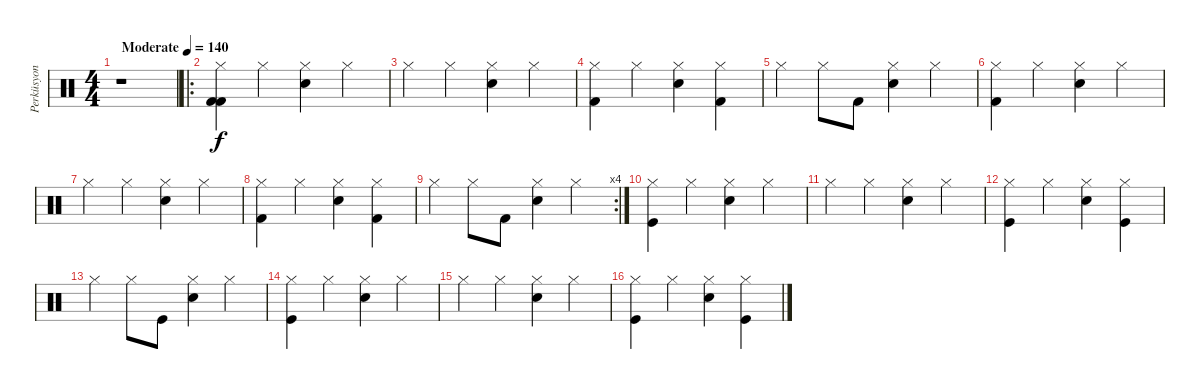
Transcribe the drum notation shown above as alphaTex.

\track ("Perküsyon" "Perküsyon") {instrument percussion}
\staff {score}
\articulation defaults
\ts (4 4)
\tempo (140 "Moderate")
\clef neutral
\ks c
r.1{dy f} |
\ro
("Hi-Hat (closed)" "Kick (hit) 2" "Kick (hit) 2").4 "Hi-Hat (closed)".4 ("Hi-Hat (closed)" "Snare (hit) 2").4 "Hi-Hat (closed)".4 |
"Hi-Hat (closed)".4 "Hi-Hat (closed)".4 ("Hi-Hat (closed)" "Snare (hit) 2").4 "Hi-Hat (closed)".4 |
("Hi-Hat (closed)" "Kick (hit) 2").4 "Hi-Hat (closed)".4 ("Hi-Hat (closed)" "Snare (hit) 2").4 ("Hi-Hat (closed)" "Kick (hit) 2").4 |
"Hi-Hat (closed)".4 "Hi-Hat (closed)".8 "Kick (hit) 2".8 ("Hi-Hat (closed)" "Snare (hit) 2").4 "Hi-Hat (closed)".4 |
("Hi-Hat (closed)" "Kick (hit) 2").4 "Hi-Hat (closed)".4 ("Hi-Hat (closed)" "Snare (hit) 2").4 "Hi-Hat (closed)".4 |
"Hi-Hat (closed)".4 "Hi-Hat (closed)".4 ("Hi-Hat (closed)" "Snare (hit) 2").4 "Hi-Hat (closed)".4 |
("Hi-Hat (closed)" "Kick (hit) 2").4 "Hi-Hat (closed)".4 ("Hi-Hat (closed)" "Snare (hit) 2").4 ("Hi-Hat (closed)" "Kick (hit) 2").4 |
\rc 4 "Hi-Hat (closed)".4 "Hi-Hat (closed)".8 "Kick (hit) 2".8
("Hi-Hat (closed)" "Snare (hit) 2").4 "Hi-Hat (closed)".4 |
("Hi-Hat (closed)" "Kick (hit)").4 "Hi-Hat (closed)".4 ("Hi-Hat (closed)" "Snare (hit) 2").4 "Hi-Hat (closed)".4 |
"Hi-Hat (closed)".4 "Hi-Hat (closed)".4 ("Hi-Hat (closed)" "Snare (hit) 2").4 "Hi-Hat (closed)".4 |
("Hi-Hat (closed)" "Kick (hit)").4 "Hi-Hat (closed)".4 ("Hi-Hat (closed)" "Snare (hit) 2").4 ("Hi-Hat (closed)" "Kick (hit)").4 |
"Hi-Hat (closed)".4 "Hi-Hat (closed)".8 "Kick (hit)".8 ("Hi-Hat (closed)" "Snare (hit) 2").4 "Hi-Hat (closed)".4 |
("Hi-Hat (closed)" "Kick (hit)").4 "Hi-Hat (closed)".4 ("Hi-Hat (closed)" "Snare (hit) 2").4 "Hi-Hat (closed)".4 |
"Hi-Hat (closed)".4 "Hi-Hat (closed)".4 ("Hi-Hat (closed)" "Snare (hit) 2").4 "Hi-Hat (closed)".4 |
("Hi-Hat (closed)" "Kick (hit)").4 "Hi-Hat (closed)".4 ("Hi-Hat (closed)" "Snare (hit) 2").4 ("Hi-Hat (closed)" "Kick (hit)").4
